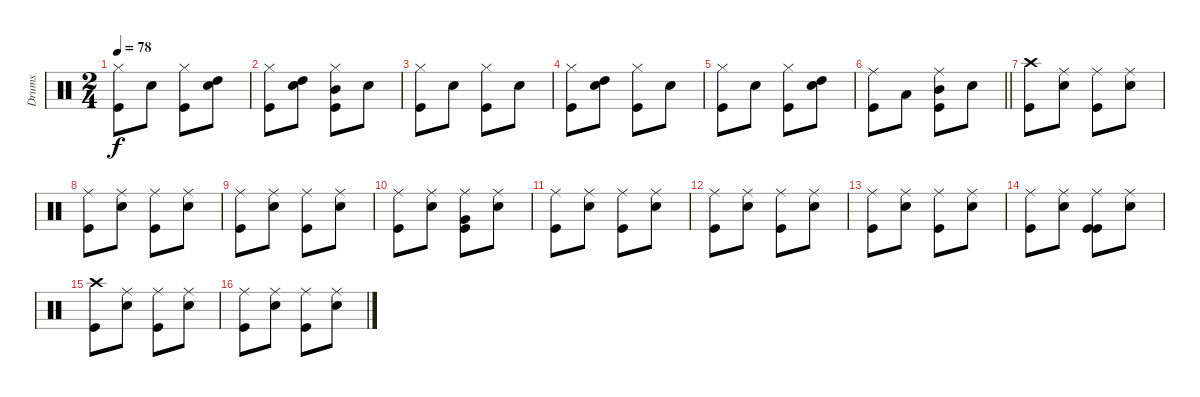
\track ("Drums" "Drums") {instrument percussion}
\staff {score}
\articulation defaults
\ts (2 4)
\tempo 78
\clef neutral
\ks c
("Hi-Hat (closed)" "Kick (hit)").8{dy f} "Electric Snare (hit)".8 ("Hi-Hat (closed)" "Kick (hit)").8 ("High Tom (hit)" "Electric Snare (hit)").8 |
("Hi-Hat (closed)" "Kick (hit)").8 ("High Tom (hit)" "Electric Snare (hit)").8 ("Hi-Hat (closed)" "Mid Tom (hit)" "Kick (hit)").8 "Electric Snare (hit)".8 |
("Hi-Hat (closed)" "Kick (hit)").8 "Electric Snare (hit)".8 ("Hi-Hat (closed)" "Kick (hit)").8 "Electric Snare (hit)".8 |
("Hi-Hat (closed)" "Kick (hit)").8 ("High Tom (hit)" "Electric Snare (hit)").8 ("Hi-Hat (closed)" "Kick (hit)").8 "Electric Snare (hit)".8 |
("Hi-Hat (closed)" "Kick (hit)").8 "Electric Snare (hit)".8 ("Hi-Hat (closed)" "Kick (hit)").8 ("High Tom (hit)" "Electric Snare (hit)").8 |
\barLineRight lightlight
("Ride (middle)" "Kick (hit)").8 "Low Tom (hit)".8 ("Ride (middle)" "Mid Tom (hit)" "Kick (hit)").8 "Electric Snare (hit)".8 |
("Crash high (hit)" "Kick (hit)").8 ("Ride (middle)" "Electric Snare (hit)").8 ("Ride (middle)" "Kick (hit)").8 ("Ride (middle)" "Electric Snare (hit)").8 |
("Ride (middle)" "Kick (hit)").8 ("Ride (middle)" "Electric Snare (hit)").8 ("Ride (middle)" "Kick (hit)").8 ("Ride (middle)" "Electric Snare (hit)").8 |
("Ride (middle)" "Kick (hit)").8 ("Ride (middle)" "Electric Snare (hit)").8 ("Ride (middle)" "Kick (hit)").8 ("Ride (middle)" "Electric Snare (hit)").8 |
("Ride (middle)" "Kick (hit)").8 ("Ride (middle)" "Electric Snare (hit)").8 ("Ride (middle)" "Very Low Tom (hit)" "Kick (hit)").8 ("Ride (middle)" "Electric Snare (hit)").8 |
("Ride (middle)" "Kick (hit)").8 ("Ride (middle)" "Electric Snare (hit)").8 ("Ride (middle)" "Kick (hit)").8 ("Ride (middle)" "Electric Snare (hit)").8 |
("Ride (middle)" "Kick (hit)").8 ("Ride (middle)" "Electric Snare (hit)").8 ("Ride (middle)" "Kick (hit)").8 ("Ride (middle)" "Electric Snare (hit)").8 |
("Ride (middle)" "Kick (hit)").8 ("Ride (middle)" "Electric Snare (hit)").8 ("Ride (middle)" "Kick (hit)").8 ("Ride (middle)" "Electric Snare (hit)").8 |
("Ride (middle)" "Kick (hit)").8 ("Ride (middle)" "Electric Snare (hit)").8 ("Ride (middle)" "Kick (hit)" "Kick (hit)").8 ("Ride (middle)" "Electric Snare (hit)").8 |
("Crash high (hit)" "Kick (hit)").8 ("Ride (middle)" "Electric Snare (hit)").8 ("Ride (middle)" "Kick (hit)").8 ("Ride (middle)" "Electric Snare (hit)").8 |
("Ride (middle)" "Kick (hit)").8 ("Ride (middle)" "Electric Snare (hit)").8 ("Ride (middle)" "Kick (hit)").8 ("Ride (middle)" "Electric Snare (hit)").8
